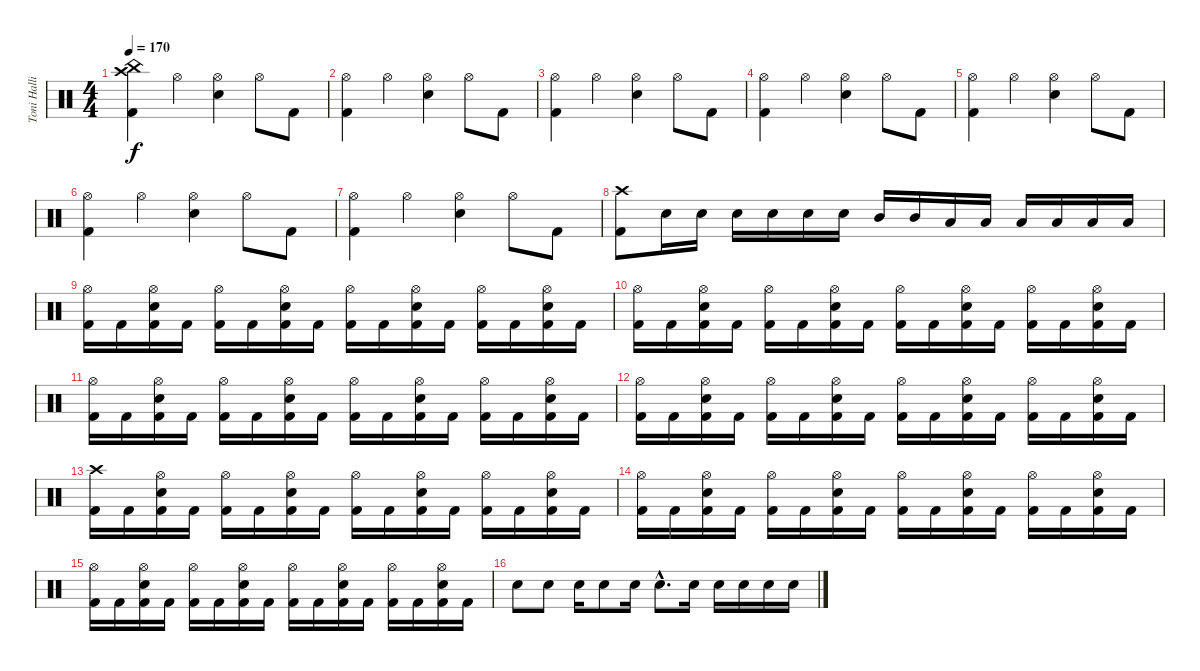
\track ("Toni Hallio" "Toni Halli") {instrument percussion}
\staff {score}
\articulation defaults
\ts (4 4)
\tempo 170
\clef neutral
\ks c
("China (hit)" "Crash high (hit)" "Kick (hit) 2").4{dy f} "Hi-Hat (open)".4 ("Hi-Hat (open)" "Snare (hit) 2").4 "Hi-Hat (open)".8 "Kick (hit) 2".8 |
("Hi-Hat (open)" "Kick (hit) 2").4 "Hi-Hat (open)".4 ("Hi-Hat (open)" "Snare (hit) 2").4 "Hi-Hat (open)".8 "Kick (hit) 2".8 |
("Hi-Hat (open)" "Kick (hit) 2").4 "Hi-Hat (open)".4 ("Hi-Hat (open)" "Snare (hit) 2").4 "Hi-Hat (open)".8 "Kick (hit) 2".8 |
("Hi-Hat (open)" "Kick (hit) 2").4 "Hi-Hat (open)".4 ("Hi-Hat (open)" "Snare (hit) 2").4 "Hi-Hat (open)".8 "Kick (hit) 2".8 |
("Hi-Hat (open)" "Kick (hit) 2").4 "Hi-Hat (open)".4 ("Hi-Hat (open)" "Snare (hit) 2").4 "Hi-Hat (open)".8 "Kick (hit) 2".8 |
("Hi-Hat (open)" "Kick (hit) 2").4 "Hi-Hat (open)".4 ("Hi-Hat (open)" "Snare (hit) 2").4 "Hi-Hat (open)".8 "Kick (hit) 2".8 |
("Hi-Hat (open)" "Kick (hit) 2").4 "Hi-Hat (open)".4 ("Hi-Hat (open)" "Snare (hit) 2").4 "Hi-Hat (open)".8 "Kick (hit) 2".8 |
("Crash high (hit)" "Kick (hit) 2").8 "Snare (hit) 2".16 "Snare (hit) 2".16 "Snare (hit) 2".16 "Snare (hit) 2".16 "Snare (hit) 2".16 "Snare (hit) 2".16 "Mid Tom (hit)".16 "Mid Tom (hit)".16 "Low Tom (hit)".16 "Low Tom (hit)".16 "Low Floor Tom (hit)".16 "Low Floor Tom (hit)".16 "Low Floor Tom (hit)".16 "Low Floor Tom (hit)".16 |
("Hi-Hat (open)" "Kick (hit) 2").16 "Kick (hit) 2".16 ("Hi-Hat (open)" "Snare (hit) 2" "Kick (hit) 2").16 "Kick (hit) 2".16 ("Hi-Hat (open)" "Kick (hit) 2").16 "Kick (hit) 2".16 ("Hi-Hat (open)" "Snare (hit) 2" "Kick (hit) 2").16 "Kick (hit) 2".16 ("Hi-Hat (open)" "Kick (hit) 2").16 "Kick (hit) 2".16 ("Hi-Hat (open)" "Snare (hit) 2" "Kick (hit) 2").16 "Kick (hit) 2".16 ("Hi-Hat (open)" "Kick (hit) 2").16 "Kick (hit) 2".16 ("Hi-Hat (open)" "Snare (hit) 2" "Kick (hit) 2").16 "Kick (hit) 2".16 |
("Hi-Hat (open)" "Kick (hit) 2").16 "Kick (hit) 2".16 ("Hi-Hat (open)" "Snare (hit) 2" "Kick (hit) 2").16 "Kick (hit) 2".16 ("Hi-Hat (open)" "Kick (hit) 2").16 "Kick (hit) 2".16 ("Hi-Hat (open)" "Snare (hit) 2" "Kick (hit) 2").16 "Kick (hit) 2".16 ("Hi-Hat (open)" "Kick (hit) 2").16 "Kick (hit) 2".16 ("Hi-Hat (open)" "Snare (hit) 2" "Kick (hit) 2").16 "Kick (hit) 2".16 ("Hi-Hat (open)" "Kick (hit) 2").16 "Kick (hit) 2".16 ("Hi-Hat (open)" "Snare (hit) 2" "Kick (hit) 2").16 "Kick (hit) 2".16 |
("Hi-Hat (open)" "Kick (hit) 2").16 "Kick (hit) 2".16 ("Hi-Hat (open)" "Snare (hit) 2" "Kick (hit) 2").16 "Kick (hit) 2".16 ("Hi-Hat (open)" "Kick (hit) 2").16 "Kick (hit) 2".16 ("Hi-Hat (open)" "Snare (hit) 2" "Kick (hit) 2").16 "Kick (hit) 2".16 ("Hi-Hat (open)" "Kick (hit) 2").16 "Kick (hit) 2".16 ("Hi-Hat (open)" "Snare (hit) 2" "Kick (hit) 2").16 "Kick (hit) 2".16 ("Hi-Hat (open)" "Kick (hit) 2").16 "Kick (hit) 2".16 ("Hi-Hat (open)" "Snare (hit) 2" "Kick (hit) 2").16 "Kick (hit) 2".16 |
("Hi-Hat (open)" "Kick (hit) 2").16 "Kick (hit) 2".16 ("Hi-Hat (open)" "Snare (hit) 2" "Kick (hit) 2").16 "Kick (hit) 2".16 ("Hi-Hat (open)" "Kick (hit) 2").16 "Kick (hit) 2".16 ("Hi-Hat (open)" "Snare (hit) 2" "Kick (hit) 2").16 "Kick (hit) 2".16 ("Hi-Hat (open)" "Kick (hit) 2").16 "Kick (hit) 2".16 ("Hi-Hat (open)" "Snare (hit) 2" "Kick (hit) 2").16 "Kick (hit) 2".16 ("Hi-Hat (open)" "Kick (hit) 2").16 "Kick (hit) 2".16 ("Hi-Hat (open)" "Snare (hit) 2" "Kick (hit) 2").16 "Kick (hit) 2".16 |
("Crash high (hit)" "Kick (hit) 2").16 "Kick (hit) 2".16 ("Hi-Hat (open)" "Snare (hit) 2" "Kick (hit) 2").16 "Kick (hit) 2".16 ("Hi-Hat (open)" "Kick (hit) 2").16 "Kick (hit) 2".16 ("Hi-Hat (open)" "Snare (hit) 2" "Kick (hit) 2").16 "Kick (hit) 2".16 ("Hi-Hat (open)" "Kick (hit) 2").16 "Kick (hit) 2".16 ("Hi-Hat (open)" "Snare (hit) 2" "Kick (hit) 2").16 "Kick (hit) 2".16 ("Hi-Hat (open)" "Kick (hit) 2").16 "Kick (hit) 2".16 ("Hi-Hat (open)" "Snare (hit) 2" "Kick (hit) 2").16 "Kick (hit) 2".16 |
("Hi-Hat (open)" "Kick (hit) 2").16 "Kick (hit) 2".16 ("Hi-Hat (open)" "Snare (hit) 2" "Kick (hit) 2").16 "Kick (hit) 2".16 ("Hi-Hat (open)" "Kick (hit) 2").16 "Kick (hit) 2".16 ("Hi-Hat (open)" "Snare (hit) 2" "Kick (hit) 2").16 "Kick (hit) 2".16 ("Hi-Hat (open)" "Kick (hit) 2").16 "Kick (hit) 2".16 ("Hi-Hat (open)" "Snare (hit) 2" "Kick (hit) 2").16 "Kick (hit) 2".16 ("Hi-Hat (open)" "Kick (hit) 2").16 "Kick (hit) 2".16 ("Hi-Hat (open)" "Snare (hit) 2" "Kick (hit) 2").16 "Kick (hit) 2".16 |
("Hi-Hat (open)" "Kick (hit) 2").16 "Kick (hit) 2".16 ("Hi-Hat (open)" "Snare (hit) 2" "Kick (hit) 2").16 "Kick (hit) 2".16 ("Hi-Hat (open)" "Kick (hit) 2").16 "Kick (hit) 2".16 ("Hi-Hat (open)" "Snare (hit) 2" "Kick (hit) 2").16 "Kick (hit) 2".16 ("Hi-Hat (open)" "Kick (hit) 2").16 "Kick (hit) 2".16 ("Hi-Hat (open)" "Snare (hit) 2" "Kick (hit) 2").16 "Kick (hit) 2".16 ("Hi-Hat (open)" "Kick (hit) 2").16 "Kick (hit) 2".16 ("Hi-Hat (open)" "Snare (hit) 2" "Kick (hit) 2").16 "Kick (hit) 2".16 |
"Snare (hit) 2".8 "Snare (hit) 2".8 "Snare (hit) 2".16 "Snare (hit) 2".8 "Snare (hit) 2".16 "Snare (hit) 2"{hac}.8{d} "Snare (hit) 2".16 "Snare (hit) 2".16 "Snare (hit) 2".16 "Snare (hit) 2".16 "Snare (hit) 2".16
